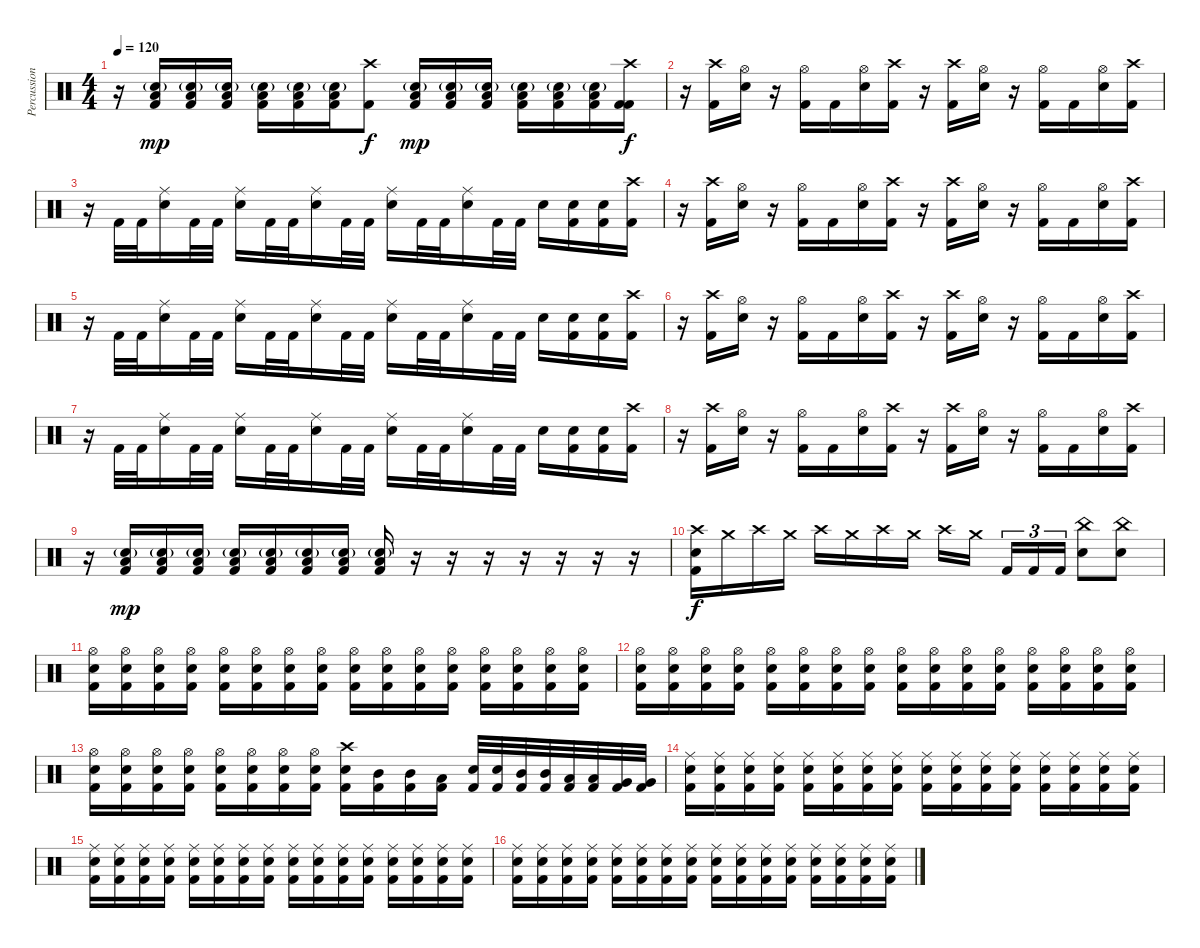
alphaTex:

\track ("Percussion" "Percussion") {instrument percussion}
\staff {score}
\articulation defaults
\ts (4 4)
\tempo 120
\clef neutral
\ks c
r.16{dy f} ("Low Floor Tom (hit)" "Electric Snare (hit)"{g} "Kick (hit) 2").16{dy mp} ("Low Floor Tom (hit)" "Electric Snare (hit)"{g} "Kick (hit) 2").16 ("Low Floor Tom (hit)" "Electric Snare (hit)"{g} "Kick (hit) 2").16 ("Low Floor Tom (hit)" "Electric Snare (hit)"{g} "Kick (hit) 2").16 ("Low Floor Tom (hit)" "Electric Snare (hit)"{g} "Kick (hit) 2").16 ("Low Floor Tom (hit)" "Electric Snare (hit)"{g} "Kick (hit) 2").16 ("Crash high (hit)" "Kick (hit) 2").8{dy f} ("Low Floor Tom (hit)" "Electric Snare (hit)"{g} "Kick (hit) 2").16{dy mp} ("Low Floor Tom (hit)" "Electric Snare (hit)"{g} "Kick (hit) 2").16 ("Low Floor Tom (hit)" "Electric Snare (hit)"{g} "Kick (hit) 2").16 ("Low Floor Tom (hit)" "Electric Snare (hit)"{g} "Kick (hit) 2").16 ("Low Floor Tom (hit)" "Electric Snare (hit)"{g} "Kick (hit) 2").16 ("Low Floor Tom (hit)" "Electric Snare (hit)"{g} "Kick (hit) 2").16 ("Crash high (hit)" "Kick (hit) 2" "Kick (hit) 2").16{dy f} |
r.16 ("Crash high (hit)" "Kick (hit) 2").16 ("Hi-Hat (open)" "Electric Snare (hit)").16 r.16 ("Hi-Hat (open)" "Kick (hit) 2").16 "Kick (hit) 2".16 ("Hi-Hat (open)" "Electric Snare (hit)").16 ("Crash high (hit)" "Kick (hit) 2").16 r.16 ("Crash high (hit)" "Kick (hit) 2").16 ("Hi-Hat (open)" "Electric Snare (hit)").16 r.16 ("Hi-Hat (open)" "Kick (hit) 2").16 "Kick (hit) 2".16 ("Hi-Hat (open)" "Electric Snare (hit)").16 ("Crash high (hit)" "Kick (hit) 2").16 |
r.16 "Kick (hit) 2".32 "Kick (hit) 2".32 ("Ride (middle)" "Electric Snare (hit)").16 "Kick (hit) 2".32 "Kick (hit) 2".32 ("Ride (middle)" "Electric Snare (hit)").16 "Kick (hit) 2".32 "Kick (hit) 2".32 ("Ride (middle)" "Electric Snare (hit)").16 "Kick (hit) 2".32 "Kick (hit) 2".32 ("Ride (middle)" "Electric Snare (hit)").16 "Kick (hit) 2".32 "Kick (hit) 2".32 ("Ride (middle)" "Electric Snare (hit)").16 "Kick (hit) 2".32 "Kick (hit) 2".32 "Electric Snare (hit)".16 ("Electric Snare (hit)" "Kick (hit) 2").16 ("Electric Snare (hit)" "Kick (hit) 2").16 ("Crash high (hit)" "Kick (hit) 2").16 |
r.16 ("Crash high (hit)" "Kick (hit) 2").16 ("Hi-Hat (open)" "Electric Snare (hit)").16 r.16 ("Hi-Hat (open)" "Kick (hit) 2").16 "Kick (hit) 2".16 ("Hi-Hat (open)" "Electric Snare (hit)").16 ("Crash high (hit)" "Kick (hit) 2").16 r.16 ("Crash high (hit)" "Kick (hit) 2").16 ("Hi-Hat (open)" "Electric Snare (hit)").16 r.16 ("Hi-Hat (open)" "Kick (hit) 2").16 "Kick (hit) 2".16 ("Hi-Hat (open)" "Electric Snare (hit)").16 ("Crash high (hit)" "Kick (hit) 2").16 |
r.16 "Kick (hit) 2".32 "Kick (hit) 2".32 ("Ride (middle)" "Electric Snare (hit)").16 "Kick (hit) 2".32 "Kick (hit) 2".32 ("Ride (middle)" "Electric Snare (hit)").16 "Kick (hit) 2".32 "Kick (hit) 2".32 ("Ride (middle)" "Electric Snare (hit)").16 "Kick (hit) 2".32 "Kick (hit) 2".32 ("Ride (middle)" "Electric Snare (hit)").16 "Kick (hit) 2".32 "Kick (hit) 2".32 ("Ride (middle)" "Electric Snare (hit)").16 "Kick (hit) 2".32 "Kick (hit) 2".32 "Electric Snare (hit)".16 ("Electric Snare (hit)" "Kick (hit) 2").16 ("Electric Snare (hit)" "Kick (hit) 2").16 ("Crash high (hit)" "Kick (hit) 2").16 |
r.16 ("Crash high (hit)" "Kick (hit) 2").16 ("Hi-Hat (open)" "Electric Snare (hit)").16 r.16 ("Hi-Hat (open)" "Kick (hit) 2").16 "Kick (hit) 2".16 ("Hi-Hat (open)" "Electric Snare (hit)").16 ("Crash high (hit)" "Kick (hit) 2").16 r.16 ("Crash high (hit)" "Kick (hit) 2").16 ("Hi-Hat (open)" "Electric Snare (hit)").16 r.16 ("Hi-Hat (open)" "Kick (hit) 2").16 "Kick (hit) 2".16 ("Hi-Hat (open)" "Electric Snare (hit)").16 ("Crash high (hit)" "Kick (hit) 2").16 |
r.16 "Kick (hit) 2".32 "Kick (hit) 2".32 ("Ride (middle)" "Electric Snare (hit)").16 "Kick (hit) 2".32 "Kick (hit) 2".32 ("Ride (middle)" "Electric Snare (hit)").16 "Kick (hit) 2".32 "Kick (hit) 2".32 ("Ride (middle)" "Electric Snare (hit)").16 "Kick (hit) 2".32 "Kick (hit) 2".32 ("Ride (middle)" "Electric Snare (hit)").16 "Kick (hit) 2".32 "Kick (hit) 2".32 ("Ride (middle)" "Electric Snare (hit)").16 "Kick (hit) 2".32 "Kick (hit) 2".32 "Electric Snare (hit)".16 ("Electric Snare (hit)" "Kick (hit) 2").16 ("Electric Snare (hit)" "Kick (hit) 2").16 ("Crash high (hit)" "Kick (hit) 2").16 |
r.16 ("Crash high (hit)" "Kick (hit) 2").16 ("Hi-Hat (open)" "Electric Snare (hit)").16 r.16 ("Hi-Hat (open)" "Kick (hit) 2").16 "Kick (hit) 2".16 ("Hi-Hat (open)" "Electric Snare (hit)").16 ("Crash high (hit)" "Kick (hit) 2").16 r.16 ("Crash high (hit)" "Kick (hit) 2").16 ("Hi-Hat (open)" "Electric Snare (hit)").16 r.16 ("Hi-Hat (open)" "Kick (hit) 2").16 "Kick (hit) 2".16 ("Hi-Hat (open)" "Electric Snare (hit)").16 ("Crash high (hit)" "Kick (hit) 2").16 |
r.16 ("Low Floor Tom (hit)" "Electric Snare (hit)"{g} "Kick (hit) 2").16{dy mp} ("Low Floor Tom (hit)" "Electric Snare (hit)"{g} "Kick (hit) 2").16 ("Low Floor Tom (hit)" "Electric Snare (hit)"{g} "Kick (hit) 2").16 ("Low Floor Tom (hit)" "Electric Snare (hit)"{g} "Kick (hit) 2").16 ("Low Floor Tom (hit)" "Electric Snare (hit)"{g} "Kick (hit) 2").16 ("Low Floor Tom (hit)" "Electric Snare (hit)"{g} "Kick (hit) 2").16 ("Low Floor Tom (hit)" "Electric Snare (hit)"{g} "Kick (hit) 2").16 ("Low Floor Tom (hit)" "Electric Snare (hit)"{g} "Kick (hit) 2").16 r.16 r.16 r.16 r.16 r.16 r.16 r.16 |
("Crash high (hit)" "Electric Snare (hit)" "Kick (hit) 2").16{dy f} "Crash medium (hit)".16 "Crash high (hit)".16 "Crash medium (hit)".16 "Crash high (hit)".16 "Crash medium (hit)".16 "Crash high (hit)".16 "Crash medium (hit)".16 "Crash high (hit)".16 "Crash medium (hit)".16 "Kick (hit) 2".16{tu (3 2)} "Kick (hit) 2".16{tu (3 2)} "Kick (hit) 2".16{tu (3 2)} ("China (hit)" "Electric Snare (hit)").8 ("China (hit)" "Electric Snare (hit)").8 |
("Hi-Hat (open)" "Electric Snare (hit)" "Kick (hit) 2").16 ("Hi-Hat (open)" "Electric Snare (hit)" "Kick (hit) 2").16 ("Hi-Hat (open)" "Electric Snare (hit)" "Kick (hit) 2").16 ("Hi-Hat (open)" "Electric Snare (hit)" "Kick (hit) 2").16 ("Hi-Hat (open)" "Electric Snare (hit)" "Kick (hit) 2").16 ("Hi-Hat (open)" "Electric Snare (hit)" "Kick (hit) 2").16 ("Hi-Hat (open)" "Electric Snare (hit)" "Kick (hit) 2").16 ("Hi-Hat (open)" "Electric Snare (hit)" "Kick (hit) 2").16 ("Hi-Hat (open)" "Electric Snare (hit)" "Kick (hit) 2").16 ("Hi-Hat (open)" "Electric Snare (hit)" "Kick (hit) 2").16 ("Hi-Hat (open)" "Electric Snare (hit)" "Kick (hit) 2").16 ("Hi-Hat (open)" "Electric Snare (hit)" "Kick (hit) 2").16 ("Hi-Hat (open)" "Electric Snare (hit)" "Kick (hit) 2").16 ("Hi-Hat (open)" "Electric Snare (hit)" "Kick (hit) 2").16 ("Hi-Hat (open)" "Electric Snare (hit)" "Kick (hit) 2").16 ("Hi-Hat (open)" "Electric Snare (hit)" "Kick (hit) 2").16 |
("Hi-Hat (open)" "Electric Snare (hit)" "Kick (hit) 2").16 ("Hi-Hat (open)" "Electric Snare (hit)" "Kick (hit) 2").16 ("Hi-Hat (open)" "Electric Snare (hit)" "Kick (hit) 2").16 ("Hi-Hat (open)" "Electric Snare (hit)" "Kick (hit) 2").16 ("Hi-Hat (open)" "Electric Snare (hit)" "Kick (hit) 2").16 ("Hi-Hat (open)" "Electric Snare (hit)" "Kick (hit) 2").16 ("Hi-Hat (open)" "Electric Snare (hit)" "Kick (hit) 2").16 ("Hi-Hat (open)" "Electric Snare (hit)" "Kick (hit) 2").16 ("Hi-Hat (open)" "Electric Snare (hit)" "Kick (hit) 2").16 ("Hi-Hat (open)" "Electric Snare (hit)" "Kick (hit) 2").16 ("Hi-Hat (open)" "Electric Snare (hit)" "Kick (hit) 2").16 ("Hi-Hat (open)" "Electric Snare (hit)" "Kick (hit) 2").16 ("Hi-Hat (open)" "Electric Snare (hit)" "Kick (hit) 2").16 ("Hi-Hat (open)" "Electric Snare (hit)" "Kick (hit) 2").16 ("Hi-Hat (open)" "Electric Snare (hit)" "Kick (hit) 2").16 ("Hi-Hat (open)" "Electric Snare (hit)" "Kick (hit) 2").16 |
("Hi-Hat (open)" "Electric Snare (hit)" "Kick (hit) 2").16 ("Hi-Hat (open)" "Electric Snare (hit)" "Kick (hit) 2").16 ("Hi-Hat (open)" "Electric Snare (hit)" "Kick (hit) 2").16 ("Hi-Hat (open)" "Electric Snare (hit)" "Kick (hit) 2").16 ("Hi-Hat (open)" "Electric Snare (hit)" "Kick (hit) 2").16 ("Hi-Hat (open)" "Electric Snare (hit)" "Kick (hit) 2").16 ("Hi-Hat (open)" "Electric Snare (hit)" "Kick (hit) 2").16 ("Hi-Hat (open)" "Electric Snare (hit)" "Kick (hit) 2").16 ("Crash high (hit)" "Electric Snare (hit)" "Kick (hit) 2").16 ("Mid Tom (hit)" "Kick (hit) 2").16 ("Mid Tom (hit)" "Kick (hit) 2").16 ("Low Tom (hit)" "Kick (hit) 2").16 ("Electric Snare (hit)" "Kick (hit) 2").32 ("Electric Snare (hit)" "Kick (hit) 2").32 ("Mid Tom (hit)" "Kick (hit) 2").32 ("Mid Tom (hit)" "Kick (hit) 2").32 ("Low Tom (hit)" "Kick (hit) 2").32 ("Low Tom (hit)" "Kick (hit) 2").32 ("Very Low Tom (hit)" "Kick (hit) 2").32 ("Very Low Tom (hit)" "Kick (hit) 2").32 |
("Ride (middle)" "Electric Snare (hit)" "Kick (hit) 2").16 ("Ride (middle)" "Electric Snare (hit)" "Kick (hit) 2").16 ("Ride (middle)" "Electric Snare (hit)" "Kick (hit) 2").16 ("Ride (middle)" "Electric Snare (hit)" "Kick (hit) 2").16 ("Ride (middle)" "Electric Snare (hit)" "Kick (hit) 2").16 ("Ride (middle)" "Electric Snare (hit)" "Kick (hit) 2").16 ("Ride (middle)" "Electric Snare (hit)" "Kick (hit) 2").16 ("Ride (middle)" "Electric Snare (hit)" "Kick (hit) 2").16 ("Ride (middle)" "Electric Snare (hit)" "Kick (hit) 2").16 ("Ride (middle)" "Electric Snare (hit)" "Kick (hit) 2").16 ("Ride (middle)" "Electric Snare (hit)" "Kick (hit) 2").16 ("Ride (middle)" "Electric Snare (hit)" "Kick (hit) 2").16 ("Ride (middle)" "Electric Snare (hit)" "Kick (hit) 2").16 ("Ride (middle)" "Electric Snare (hit)" "Kick (hit) 2").16 ("Ride (middle)" "Electric Snare (hit)" "Kick (hit) 2").16 ("Ride (middle)" "Electric Snare (hit)" "Kick (hit) 2").16 |
("Ride (middle)" "Electric Snare (hit)" "Kick (hit) 2").16 ("Ride (middle)" "Electric Snare (hit)" "Kick (hit) 2").16 ("Ride (middle)" "Electric Snare (hit)" "Kick (hit) 2").16 ("Ride (middle)" "Electric Snare (hit)" "Kick (hit) 2").16 ("Ride (middle)" "Electric Snare (hit)" "Kick (hit) 2").16 ("Ride (middle)" "Electric Snare (hit)" "Kick (hit) 2").16 ("Ride (middle)" "Electric Snare (hit)" "Kick (hit) 2").16 ("Ride (middle)" "Electric Snare (hit)" "Kick (hit) 2").16 ("Ride (middle)" "Electric Snare (hit)" "Kick (hit) 2").16 ("Ride (middle)" "Electric Snare (hit)" "Kick (hit) 2").16 ("Ride (middle)" "Electric Snare (hit)" "Kick (hit) 2").16 ("Ride (middle)" "Electric Snare (hit)" "Kick (hit) 2").16 ("Ride (middle)" "Electric Snare (hit)" "Kick (hit) 2").16 ("Ride (middle)" "Electric Snare (hit)" "Kick (hit) 2").16 ("Ride (middle)" "Electric Snare (hit)" "Kick (hit) 2").16 ("Ride (middle)" "Electric Snare (hit)" "Kick (hit) 2").16 |
("Ride (middle)" "Electric Snare (hit)" "Kick (hit) 2").16 ("Ride (middle)" "Electric Snare (hit)" "Kick (hit) 2").16 ("Ride (middle)" "Electric Snare (hit)" "Kick (hit) 2").16 ("Ride (middle)" "Electric Snare (hit)" "Kick (hit) 2").16 ("Ride (middle)" "Electric Snare (hit)" "Kick (hit) 2").16 ("Ride (middle)" "Electric Snare (hit)" "Kick (hit) 2").16 ("Ride (middle)" "Electric Snare (hit)" "Kick (hit) 2").16 ("Ride (middle)" "Electric Snare (hit)" "Kick (hit) 2").16 ("Ride (middle)" "Electric Snare (hit)" "Kick (hit) 2").16 ("Ride (middle)" "Electric Snare (hit)" "Kick (hit) 2").16 ("Ride (middle)" "Electric Snare (hit)" "Kick (hit) 2").16 ("Ride (middle)" "Electric Snare (hit)" "Kick (hit) 2").16 ("Ride (middle)" "Electric Snare (hit)" "Kick (hit) 2").16 ("Ride (middle)" "Electric Snare (hit)" "Kick (hit) 2").16 ("Ride (middle)" "Electric Snare (hit)" "Kick (hit) 2").16 ("Ride (middle)" "Electric Snare (hit)" "Kick (hit) 2").16
